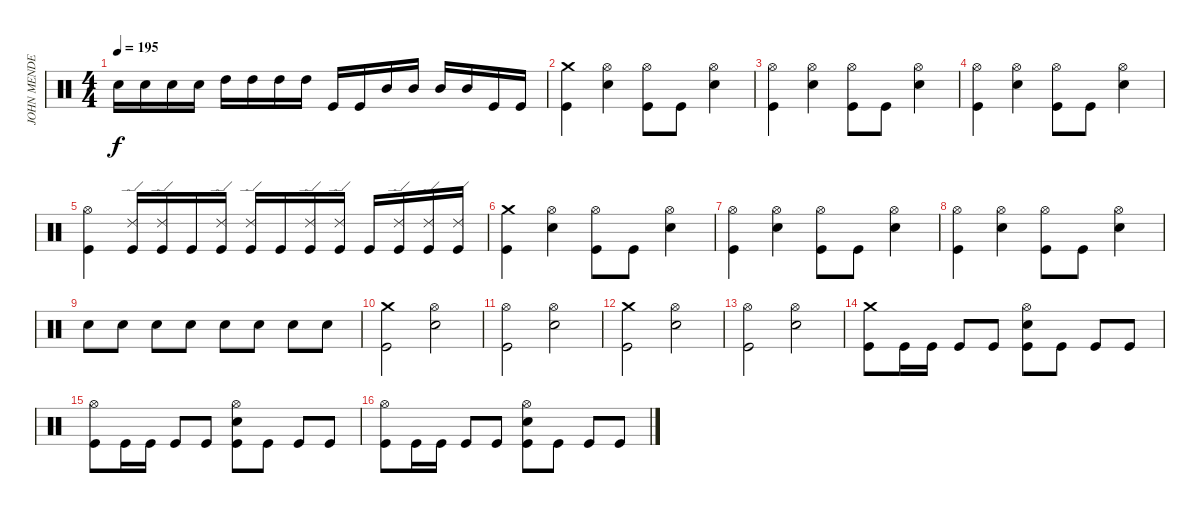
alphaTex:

\track ("JOHN MENDESSSSSSS" "JOHN MENDE") {instrument percussion}
\staff {score}
\articulation defaults
\ts (4 4)
\tempo 195
\clef neutral
\ks c "Snare (hit) 2".16{dy f} "Snare (hit) 2".16 "Snare (hit) 2".16 "Snare (hit) 2".16 "High Tom (hit)".16 "High Tom (hit)".16 "High Tom (hit)".16 "High Tom (hit)".16 "Kick (hit)".16 "Kick (hit)".16 "Mid Tom (hit)".16 "Mid Tom (hit)".16 "Mid Tom (hit)".16 "Mid Tom (hit)".16 "Kick (hit)".16 "Kick (hit)".16
|
("Kick (hit)" "Crash medium (hit)").4 ("Hi-Hat (open)" "Snare (hit) 2").4 ("Kick (hit)" "Hi-Hat (open)").8 "Kick (hit)".8 ("Hi-Hat (open)" "Snare (hit) 2").4 |
("Kick (hit)" "Hi-Hat (open)").4 ("Hi-Hat (open)" "Snare (hit) 2").4 ("Kick (hit)" "Hi-Hat (open)").8 "Kick (hit)".8 ("Hi-Hat (open)" "Snare (hit) 2").4 |
("Kick (hit)" "Hi-Hat (open)").4 ("Hi-Hat (open)" "Snare (hit) 2").4 ("Kick (hit)" "Hi-Hat (open)").8 "Kick (hit)".8 ("Hi-Hat (open)" "Snare (hit) 2").4 |
("Kick (hit)" "Hi-Hat (open)").4 ("Kick (hit)" "Ride (edge) 2").16 ("Kick (hit)" "Ride (edge) 2").16 "Kick (hit)".16 ("Kick (hit)" "Ride (edge) 2").16 ("Kick (hit)" "Ride (edge) 2").16 "Kick (hit)".16 ("Kick (hit)" "Ride (edge) 2").16 ("Kick (hit)" "Ride (edge) 2").16 "Kick (hit)".16 ("Kick (hit)" "Ride (edge) 2").16 ("Kick (hit)" "Ride (edge) 2").16 ("Kick (hit)" "Ride (edge) 2").16 |
("Kick (hit)" "Crash medium (hit)").4 ("Hi-Hat (open)" "Snare (hit) 2").4 ("Kick (hit)" "Hi-Hat (open)").8 "Kick (hit)".8 ("Hi-Hat (open)" "Snare (hit) 2").4 |
("Kick (hit)" "Hi-Hat (open)").4 ("Hi-Hat (open)" "Snare (hit) 2").4 ("Kick (hit)" "Hi-Hat (open)").8 "Kick (hit)".8 ("Hi-Hat (open)" "Snare (hit) 2").4 |
("Kick (hit)" "Hi-Hat (open)").4 ("Hi-Hat (open)" "Snare (hit) 2").4 ("Kick (hit)" "Hi-Hat (open)").8 "Kick (hit)".8 ("Hi-Hat (open)" "Snare (hit) 2").4 |
"Snare (hit) 2".8 "Snare (hit) 2".8 "Snare (hit) 2".8 "Snare (hit) 2".8 "Snare (hit) 2".8 "Snare (hit) 2".8 "Snare (hit) 2".8 "Snare (hit) 2".8 |
("Kick (hit)" "Crash medium (hit)").2 ("Snare (hit) 2" "Hi-Hat (open)").2 |
("Kick (hit)" "Hi-Hat (open)").2 ("Snare (hit) 2" "Hi-Hat (open)").2 |
("Kick (hit)" "Crash medium (hit)").2 ("Snare (hit) 2" "Hi-Hat (open)").2 |
("Kick (hit)" "Hi-Hat (open)").2 ("Snare (hit) 2" "Hi-Hat (open)").2 |
("Kick (hit)" "Crash medium (hit)").8 "Kick (hit)".16 "Kick (hit)".16 "Kick (hit)".8 "Kick (hit)".8 ("Kick (hit)" "Hi-Hat (open)" "Snare (hit) 2").8 "Kick (hit)".8 "Kick (hit)".8 "Kick (hit)".8 |
("Kick (hit)" "Hi-Hat (open)").8 "Kick (hit)".16 "Kick (hit)".16 "Kick (hit)".8 "Kick (hit)".8 ("Kick (hit)" "Hi-Hat (open)" "Snare (hit) 2").8 "Kick (hit)".8 "Kick (hit)".8 "Kick (hit)".8 |
("Kick (hit)" "Hi-Hat (open)").8 "Kick (hit)".16 "Kick (hit)".16 "Kick (hit)".8 "Kick (hit)".8 ("Kick (hit)" "Hi-Hat (open)" "Snare (hit) 2").8 "Kick (hit)".8 "Kick (hit)".8 "Kick (hit)".8
